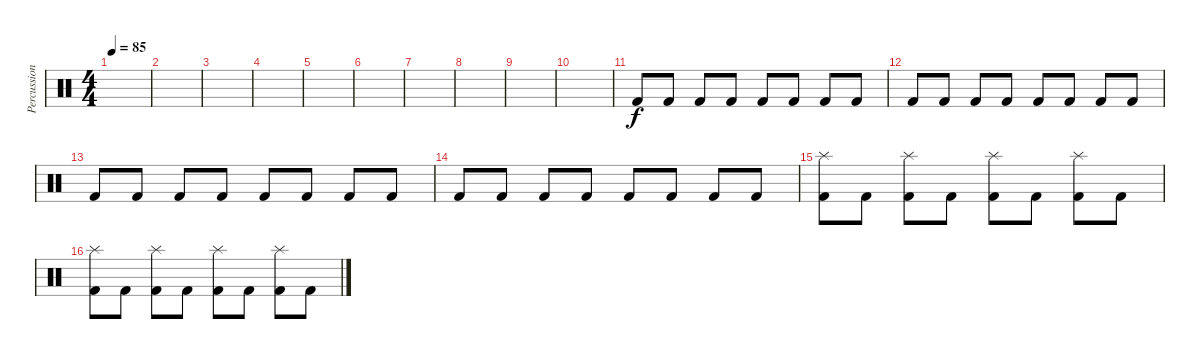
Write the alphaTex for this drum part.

\track ("Percussion" "Percussion") {instrument percussion}
\staff {score}
\articulation defaults
\ts (4 4)
\tempo 85
\clef neutral
\ks c
|
|
|
|
|
|
|
|
|
|
"Kick (hit) 2".8 "Kick (hit) 2".8 "Kick (hit) 2".8 "Kick (hit) 2".8 "Kick (hit) 2".8 "Kick (hit) 2".8 "Kick (hit) 2".8 "Kick (hit) 2".8 |
"Kick (hit) 2".8 "Kick (hit) 2".8 "Kick (hit) 2".8 "Kick (hit) 2".8 "Kick (hit) 2".8 "Kick (hit) 2".8 "Kick (hit) 2".8 "Kick (hit) 2".8 |
"Kick (hit) 2".8 "Kick (hit) 2".8 "Kick (hit) 2".8 "Kick (hit) 2".8 "Kick (hit) 2".8 "Kick (hit) 2".8 "Kick (hit) 2".8 "Kick (hit) 2".8 |
"Kick (hit) 2".8 "Kick (hit) 2".8 "Kick (hit) 2".8 "Kick (hit) 2".8 "Kick (hit) 2".8 "Kick (hit) 2".8 "Kick (hit) 2".8 "Kick (hit) 2".8 |
("Kick (hit) 2" "Splash (hit)").8 "Kick (hit) 2".8 ("Kick (hit) 2" "Splash (hit)").8 "Kick (hit) 2".8 ("Kick (hit) 2" "Splash (hit)").8 "Kick (hit) 2".8 ("Kick (hit) 2" "Splash (hit)").8 "Kick (hit) 2".8 |
("Kick (hit) 2" "Splash (hit)").8 "Kick (hit) 2".8 ("Kick (hit) 2" "Splash (hit)").8 "Kick (hit) 2".8 ("Kick (hit) 2" "Splash (hit)").8 "Kick (hit) 2".8 ("Kick (hit) 2" "Splash (hit)").8 "Kick (hit) 2".8
